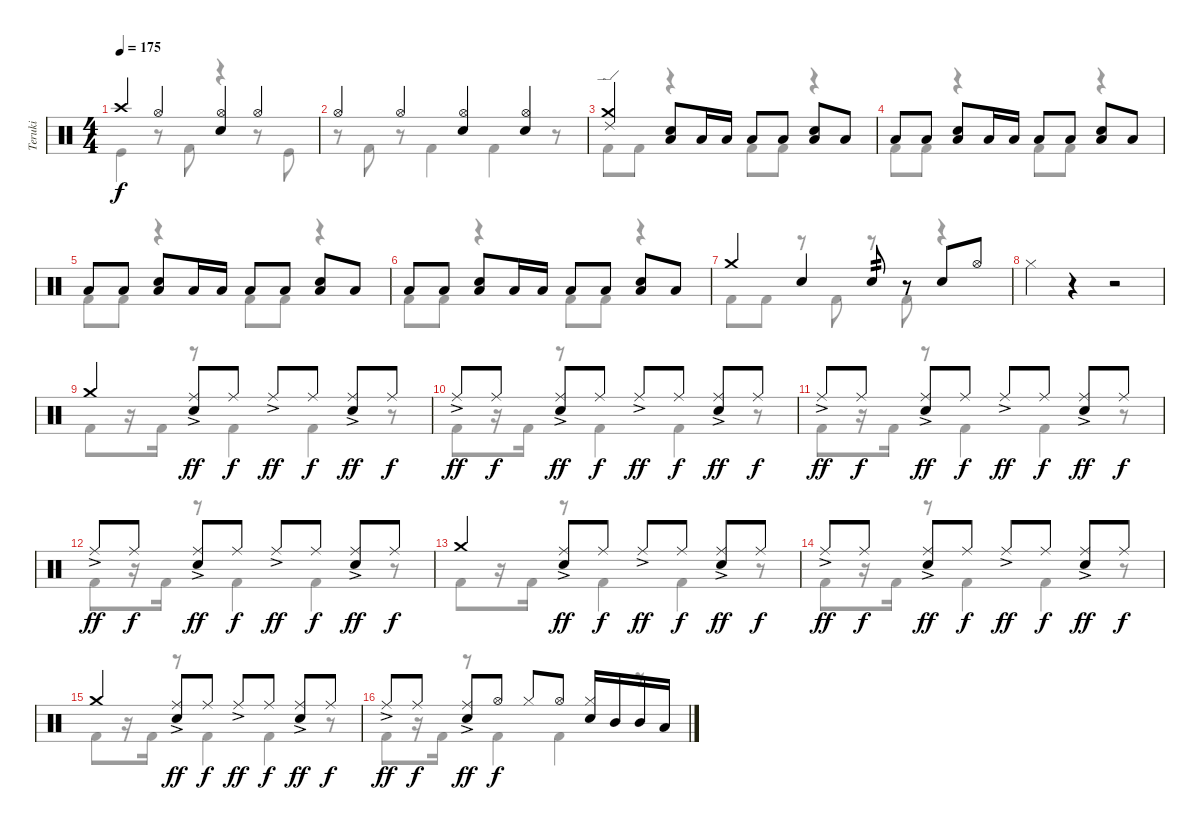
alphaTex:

\track ("Teruki" "Teruki") {instrument percussion}
\staff {score}
\articulation defaults
\voice
\ts (4 4)
\tempo 175
\clef neutral
\ks c "Crash high (hit)".4{dy f} "Hi-Hat (open)".4
("Hi-Hat (open)" "Snare (hit) 2").4 "Hi-Hat (open)".4 |
"Hi-Hat (open)".4 "Hi-Hat (open)".4 ("Hi-Hat (open)" "Snare (hit) 2").4 ("Hi-Hat (open)" "Snare (hit) 2").4 |
("Crash medium (hit)" "Ride (edge) 2").4 ("Snare (hit) 2" "Low Tom (hit)").8 "Low Tom (hit)".16 "Low Tom (hit)".16 "Low Tom (hit)".8 "Low Tom (hit)".8 ("Snare (hit) 2" "Low Tom (hit)").8 "Low Tom (hit)".8 |
"Low Tom (hit)".8 "Low Tom (hit)".8 ("Snare (hit) 2" "Low Tom (hit)").8 "Low Tom (hit)".16 "Low Tom (hit)".16 "Low Tom (hit)".8 "Low Tom (hit)".8 ("Snare (hit) 2" "Low Tom (hit)").8 "Low Tom (hit)".8 |
"Low Tom (hit)".8 "Low Tom (hit)".8 ("Snare (hit) 2" "Low Tom (hit)").8 "Low Tom (hit)".16 "Low Tom (hit)".16 "Low Tom (hit)".8 "Low Tom (hit)".8 ("Snare (hit) 2" "Low Tom (hit)").8 "Low Tom (hit)".8 |
"Low Tom (hit)".8 "Low Tom (hit)".8 ("Snare (hit) 2" "Low Tom (hit)").8 "Low Tom (hit)".16 "Low Tom (hit)".16 "Low Tom (hit)".8 "Low Tom (hit)".8 ("Snare (hit) 2" "Low Tom (hit)").8 "Low Tom (hit)".8 |
"Crash medium (hit)".4 "Snare (hit) 2".4 "Snare (hit) 2".8{tp 2} r.8 "Snare (hit) 2".8 "Hi-Hat (open)".8 |
"Hi-Hat (closed)".4 r.4 r.2 |
"Crash medium (hit)".4 ("Ride (middle)"{ac} "Snare (hit) 2").8{dy ff} "Ride (middle)".8{dy f} "Ride (middle)"{ac}.8{dy ff} "Ride (middle)".8{dy f} ("Ride (middle)"{ac} "Snare (hit) 2").8{dy ff} "Ride (middle)".8{dy f} |
"Ride (middle)"{ac}.8{dy ff} "Ride (middle)".8{dy f} ("Ride (middle)"{ac} "Snare (hit) 2").8{dy ff} "Ride (middle)".8{dy f} "Ride (middle)"{ac}.8{dy ff} "Ride (middle)".8{dy f} ("Ride (middle)"{ac} "Snare (hit) 2").8{dy ff} "Ride (middle)".8{dy f} |
"Ride (middle)"{ac}.8{dy ff} "Ride (middle)".8{dy f} ("Ride (middle)"{ac} "Snare (hit) 2").8{dy ff} "Ride (middle)".8{dy f} "Ride (middle)"{ac}.8{dy ff} "Ride (middle)".8{dy f} ("Ride (middle)"{ac} "Snare (hit) 2").8{dy ff} "Ride (middle)".8{dy f} |
"Ride (middle)"{ac}.8{dy ff} "Ride (middle)".8{dy f} ("Ride (middle)"{ac} "Snare (hit) 2").8{dy ff} "Ride (middle)".8{dy f} "Ride (middle)"{ac}.8{dy ff} "Ride (middle)".8{dy f} ("Ride (middle)"{ac} "Snare (hit) 2").8{dy ff} "Ride (middle)".8{dy f} |
"Crash medium (hit)".4 ("Ride (middle)"{ac} "Snare (hit) 2").8{dy ff} "Ride (middle)".8{dy f} "Ride (middle)"{ac}.8{dy ff} "Ride (middle)".8{dy f} ("Ride (middle)"{ac} "Snare (hit) 2").8{dy ff} "Ride (middle)".8{dy f} |
"Ride (middle)"{ac}.8{dy ff} "Ride (middle)".8{dy f} ("Ride (middle)"{ac} "Snare (hit) 2").8{dy ff} "Ride (middle)".8{dy f} "Ride (middle)"{ac}.8{dy ff} "Ride (middle)".8{dy f} ("Ride (middle)"{ac} "Snare (hit) 2").8{dy ff} "Ride (middle)".8{dy f} |
"Crash medium (hit)".4 ("Ride (middle)"{ac} "Snare (hit) 2").8{dy ff} "Ride (middle)".8{dy f} "Ride (middle)"{ac}.8{dy ff} "Ride (middle)".8{dy f} ("Ride (middle)"{ac} "Snare (hit) 2").8{dy ff} "Ride (middle)".8{dy f} |
"Ride (middle)"{ac}.8{dy ff} "Ride (middle)".8{dy f} ("Ride (middle)"{ac} "Snare (hit) 2").8{dy ff} "Hi-Hat (open)".8{dy f} "Hi-Hat (closed)".8 "Hi-Hat (open)".8 ("Hi-Hat (closed)" "Snare (hit) 2").16 "Mid Tom (hit)".16 "Mid Tom (hit)".16 "Low Tom (hit)".16
\voice
\clef neutral
\ottava regular
\simile none
\ks c "Kick (hit)".4{dy f}
r.8 "Kick (hit) 2".8 r.4 r.8 "Kick (hit)".8 |
r.8 "Kick (hit) 2".8 r.8 "Kick (hit) 2".4 "Kick (hit) 2".4 r.8 |
"Kick (hit) 2".8 "Kick (hit) 2".8 r.4 "Kick (hit) 2".8 "Kick (hit) 2".8 r.4 |
"Kick (hit) 2".8 "Kick (hit) 2".8 r.4 "Kick (hit) 2".8 "Kick (hit) 2".8 r.4 |
"Kick (hit) 2".8 "Kick (hit) 2".8 r.4 "Kick (hit) 2".8 "Kick (hit) 2".8 r.4 |
"Kick (hit) 2".8 "Kick (hit) 2".8 r.4 "Kick (hit) 2".8 "Kick (hit) 2".8 r.4 |
"Kick (hit) 2".8 "Kick (hit) 2".8 r.8 "Kick (hit) 2".8 r.8 "Kick (hit) 2".8 r.4 |
|
"Kick (hit) 2".8 r.16 "Kick (hit) 2".16 r.8 "Kick (hit) 2".4 "Kick (hit) 2".4 r.8 |
"Kick (hit) 2".8 r.16 "Kick (hit) 2".16 r.8 "Kick (hit) 2".4 "Kick (hit) 2".4 r.8 |
"Kick (hit) 2".8 r.16 "Kick (hit) 2".16 r.8 "Kick (hit) 2".4 "Kick (hit) 2".4 r.8 |
"Kick (hit) 2".8 r.16 "Kick (hit) 2".16 r.8 "Kick (hit) 2".4 "Kick (hit) 2".4 r.8 |
"Kick (hit) 2".8 r.16 "Kick (hit) 2".16 r.8 "Kick (hit) 2".4 "Kick (hit) 2".4 r.8 |
"Kick (hit) 2".8 r.16 "Kick (hit) 2".16 r.8 "Kick (hit) 2".4 "Kick (hit) 2".4 r.8 |
"Kick (hit) 2".8 r.16 "Kick (hit) 2".16 r.8 "Kick (hit) 2".4 "Kick (hit) 2".4 r.8 |
"Kick (hit) 2".8 r.16 "Kick (hit) 2".16 r.8 "Kick (hit) 2".4 "Kick (hit) 2".4 r.8
